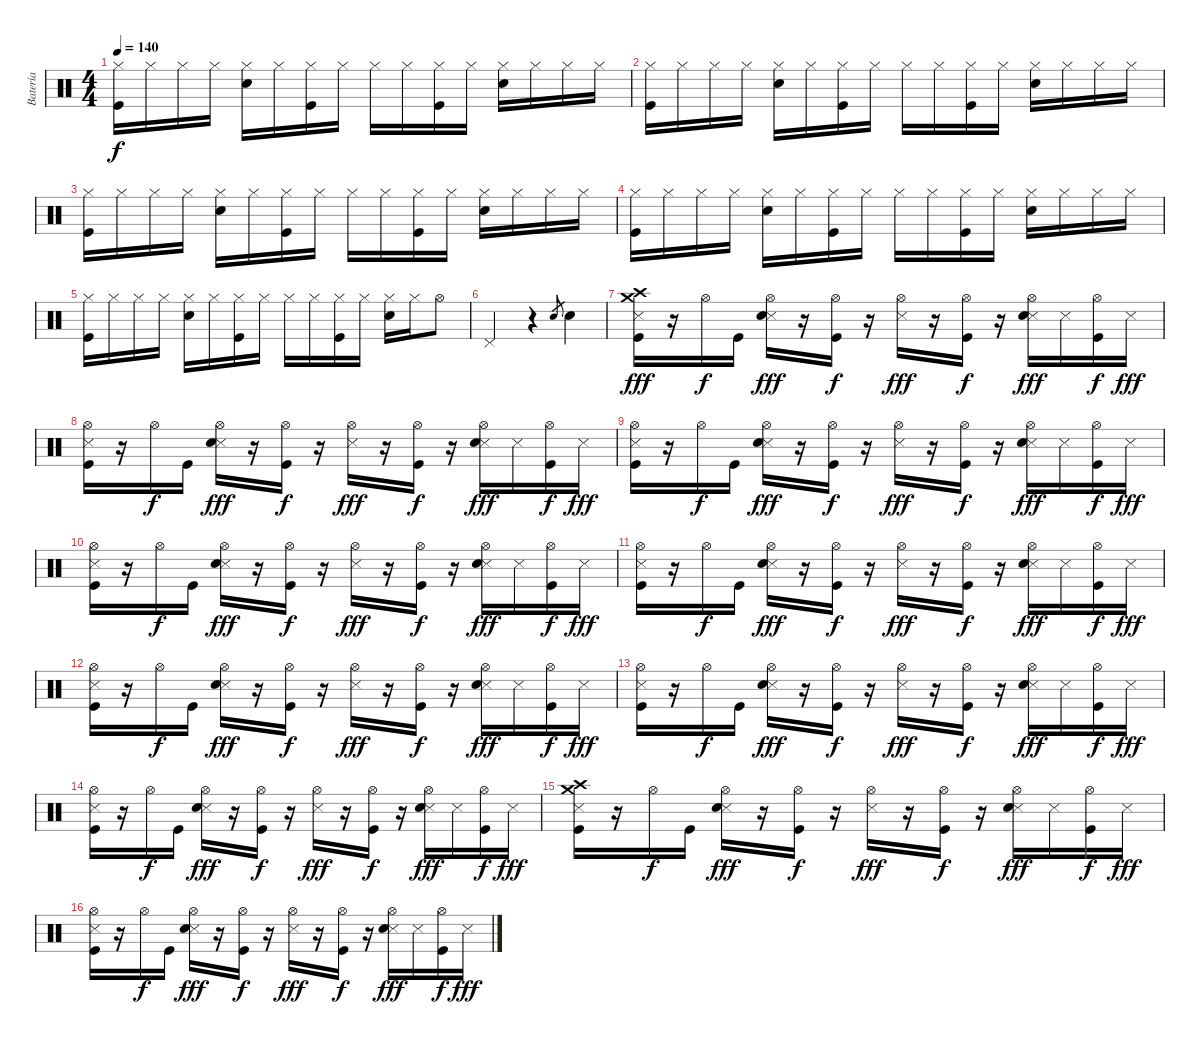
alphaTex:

\track ("Batería" "Batería") {instrument percussion}
\staff {score}
\articulation defaults
\ts (4 4)
\tempo 140
\clef neutral
\ks c
("Hi-Hat (closed)" "Kick (hit)").16{dy f} "Hi-Hat (closed)".16 "Hi-Hat (closed)".16 "Hi-Hat (closed)".16 ("Hi-Hat (closed)" "Snare (hit) 2").16 "Hi-Hat (closed)".16 ("Hi-Hat (closed)" "Kick (hit)").16 "Hi-Hat (closed)".16 "Hi-Hat (closed)".16 "Hi-Hat (closed)".16 ("Hi-Hat (closed)" "Kick (hit)").16 "Hi-Hat (closed)".16 ("Hi-Hat (closed)" "Snare (hit) 2").16 "Hi-Hat (closed)".16 "Hi-Hat (closed)".16 "Hi-Hat (closed)".16 |
("Hi-Hat (closed)" "Kick (hit)").16 "Hi-Hat (closed)".16 "Hi-Hat (closed)".16 "Hi-Hat (closed)".16 ("Hi-Hat (closed)" "Snare (hit) 2").16 "Hi-Hat (closed)".16 ("Hi-Hat (closed)" "Kick (hit)").16 "Hi-Hat (closed)".16 "Hi-Hat (closed)".16 "Hi-Hat (closed)".16 ("Hi-Hat (closed)" "Kick (hit)").16 "Hi-Hat (closed)".16 ("Hi-Hat (closed)" "Snare (hit) 2").16 "Hi-Hat (closed)".16 "Hi-Hat (closed)".16 "Hi-Hat (closed)".16 |
("Hi-Hat (closed)" "Kick (hit)").16 "Hi-Hat (closed)".16 "Hi-Hat (closed)".16 "Hi-Hat (closed)".16 ("Hi-Hat (closed)" "Snare (hit) 2").16 "Hi-Hat (closed)".16 ("Hi-Hat (closed)" "Kick (hit)").16 "Hi-Hat (closed)".16 "Hi-Hat (closed)".16 "Hi-Hat (closed)".16 ("Hi-Hat (closed)" "Kick (hit)").16 "Hi-Hat (closed)".16 ("Hi-Hat (closed)" "Snare (hit) 2").16 "Hi-Hat (closed)".16 "Hi-Hat (closed)".16 "Hi-Hat (closed)".16 |
("Hi-Hat (closed)" "Kick (hit)").16 "Hi-Hat (closed)".16 "Hi-Hat (closed)".16 "Hi-Hat (closed)".16 ("Hi-Hat (closed)" "Snare (hit) 2").16 "Hi-Hat (closed)".16 ("Hi-Hat (closed)" "Kick (hit)").16 "Hi-Hat (closed)".16 "Hi-Hat (closed)".16 "Hi-Hat (closed)".16 ("Hi-Hat (closed)" "Kick (hit)").16 "Hi-Hat (closed)".16 ("Hi-Hat (closed)" "Snare (hit) 2").16 "Hi-Hat (closed)".16 "Hi-Hat (closed)".16 "Hi-Hat (closed)".16 |
("Hi-Hat (closed)" "Kick (hit)").16 "Hi-Hat (closed)".16 "Hi-Hat (closed)".16 "Hi-Hat (closed)".16 ("Hi-Hat (closed)" "Snare (hit) 2").16 "Hi-Hat (closed)".16 ("Hi-Hat (closed)" "Kick (hit)").16 "Hi-Hat (closed)".16 "Hi-Hat (closed)".16 "Hi-Hat (closed)".16 ("Hi-Hat (closed)" "Kick (hit)").16 "Hi-Hat (closed)".16 ("Hi-Hat (closed)" "Snare (hit) 2").16 "Hi-Hat (closed)".16 "Hi-Hat (open)".8 |
"Pedal Hi-Hat (hit)".2 r.4 "Snare (hit) 2".8{gr} "Snare (hit) 2".4 |
("Metronome (hit)" "Crash medium (hit)" "Crash high (hit)" "Kick (hit)").16{dy fff} r.16 "Hi-Hat (open)".16{dy f} "Kick (hit)".16 ("Metronome (hit)" "Hi-Hat (open)" "Snare (hit) 2").16{dy fff} r.16 ("Hi-Hat (open)" "Kick (hit)").16{dy f} r.16 ("Metronome (hit)" "Hi-Hat (open)").16{dy fff} r.16 ("Hi-Hat (open)" "Kick (hit)").16{dy f} r.16 ("Metronome (hit)" "Hi-Hat (open)" "Snare (hit) 2").16{dy fff} "Metronome (hit)".16 ("Hi-Hat (open)" "Kick (hit)").16{dy f} "Metronome (hit)".16{dy fff} |
("Metronome (hit)" "Hi-Hat (open)" "Kick (hit)").16 r.16 "Hi-Hat (open)".16{dy f} "Kick (hit)".16 ("Metronome (hit)" "Hi-Hat (open)" "Snare (hit) 2").16{dy fff} r.16 ("Hi-Hat (open)" "Kick (hit)").16{dy f} r.16 ("Metronome (hit)" "Hi-Hat (open)").16{dy fff} r.16 ("Hi-Hat (open)" "Kick (hit)").16{dy f} r.16 ("Metronome (hit)" "Hi-Hat (open)" "Snare (hit) 2").16{dy fff} "Metronome (hit)".16 ("Hi-Hat (open)" "Kick (hit)").16{dy f} "Metronome (hit)".16{dy fff} |
("Metronome (hit)" "Hi-Hat (open)" "Kick (hit)").16 r.16 "Hi-Hat (open)".16{dy f} "Kick (hit)".16 ("Metronome (hit)" "Hi-Hat (open)" "Snare (hit) 2").16{dy fff} r.16 ("Hi-Hat (open)" "Kick (hit)").16{dy f} r.16 ("Metronome (hit)" "Hi-Hat (open)").16{dy fff} r.16 ("Hi-Hat (open)" "Kick (hit)").16{dy f} r.16 ("Metronome (hit)" "Hi-Hat (open)" "Snare (hit) 2").16{dy fff} "Metronome (hit)".16 ("Hi-Hat (open)" "Kick (hit)").16{dy f} "Metronome (hit)".16{dy fff} |
("Metronome (hit)" "Hi-Hat (open)" "Kick (hit)").16 r.16 "Hi-Hat (open)".16{dy f} "Kick (hit)".16 ("Metronome (hit)" "Hi-Hat (open)" "Snare (hit) 2").16{dy fff} r.16 ("Hi-Hat (open)" "Kick (hit)").16{dy f} r.16 ("Metronome (hit)" "Hi-Hat (open)").16{dy fff} r.16 ("Hi-Hat (open)" "Kick (hit)").16{dy f} r.16 ("Metronome (hit)" "Hi-Hat (open)" "Snare (hit) 2").16{dy fff} "Metronome (hit)".16 ("Hi-Hat (open)" "Kick (hit)").16{dy f} "Metronome (hit)".16{dy fff} |
("Metronome (hit)" "Hi-Hat (open)" "Kick (hit)").16 r.16 "Hi-Hat (open)".16{dy f} "Kick (hit)".16 ("Metronome (hit)" "Hi-Hat (open)" "Snare (hit) 2").16{dy fff} r.16 ("Hi-Hat (open)" "Kick (hit)").16{dy f} r.16 ("Metronome (hit)" "Hi-Hat (open)").16{dy fff} r.16 ("Hi-Hat (open)" "Kick (hit)").16{dy f} r.16 ("Metronome (hit)" "Hi-Hat (open)" "Snare (hit) 2").16{dy fff} "Metronome (hit)".16 ("Hi-Hat (open)" "Kick (hit)").16{dy f} "Metronome (hit)".16{dy fff} |
("Metronome (hit)" "Hi-Hat (open)" "Kick (hit)").16 r.16 "Hi-Hat (open)".16{dy f} "Kick (hit)".16 ("Metronome (hit)" "Hi-Hat (open)" "Snare (hit) 2").16{dy fff} r.16 ("Hi-Hat (open)" "Kick (hit)").16{dy f} r.16 ("Metronome (hit)" "Hi-Hat (open)").16{dy fff} r.16 ("Hi-Hat (open)" "Kick (hit)").16{dy f} r.16 ("Metronome (hit)" "Hi-Hat (open)" "Snare (hit) 2").16{dy fff} "Metronome (hit)".16 ("Hi-Hat (open)" "Kick (hit)").16{dy f} "Metronome (hit)".16{dy fff} |
("Metronome (hit)" "Hi-Hat (open)" "Kick (hit)").16 r.16 "Hi-Hat (open)".16{dy f} "Kick (hit)".16 ("Metronome (hit)" "Hi-Hat (open)" "Snare (hit) 2").16{dy fff} r.16 ("Hi-Hat (open)" "Kick (hit)").16{dy f} r.16 ("Metronome (hit)" "Hi-Hat (open)").16{dy fff} r.16 ("Hi-Hat (open)" "Kick (hit)").16{dy f} r.16 ("Metronome (hit)" "Hi-Hat (open)" "Snare (hit) 2").16{dy fff} "Metronome (hit)".16 ("Hi-Hat (open)" "Kick (hit)").16{dy f} "Metronome (hit)".16{dy fff} |
("Metronome (hit)" "Hi-Hat (open)" "Kick (hit)").16 r.16 "Hi-Hat (open)".16{dy f} "Kick (hit)".16 ("Metronome (hit)" "Hi-Hat (open)" "Snare (hit) 2").16{dy fff} r.16 ("Hi-Hat (open)" "Kick (hit)").16{dy f} r.16 ("Metronome (hit)" "Hi-Hat (open)").16{dy fff} r.16 ("Hi-Hat (open)" "Kick (hit)").16{dy f} r.16 ("Metronome (hit)" "Hi-Hat (open)" "Snare (hit) 2").16{dy fff} "Metronome (hit)".16 ("Hi-Hat (open)" "Kick (hit)").16{dy f} "Metronome (hit)".16{dy fff} |
("Metronome (hit)" "Crash medium (hit)" "Crash high (hit)" "Kick (hit)").16 r.16 "Hi-Hat (open)".16{dy f} "Kick (hit)".16 ("Metronome (hit)" "Hi-Hat (open)" "Snare (hit) 2").16{dy fff} r.16 ("Hi-Hat (open)" "Kick (hit)").16{dy f} r.16 ("Metronome (hit)" "Hi-Hat (open)").16{dy fff} r.16 ("Hi-Hat (open)" "Kick (hit)").16{dy f} r.16 ("Metronome (hit)" "Hi-Hat (open)" "Snare (hit) 2").16{dy fff} "Metronome (hit)".16 ("Hi-Hat (open)" "Kick (hit)").16{dy f} "Metronome (hit)".16{dy fff} |
("Metronome (hit)" "Hi-Hat (open)" "Kick (hit)").16 r.16 "Hi-Hat (open)".16{dy f} "Kick (hit)".16 ("Metronome (hit)" "Hi-Hat (open)" "Snare (hit) 2").16{dy fff} r.16 ("Hi-Hat (open)" "Kick (hit)").16{dy f} r.16 ("Metronome (hit)" "Hi-Hat (open)").16{dy fff} r.16 ("Hi-Hat (open)" "Kick (hit)").16{dy f} r.16 ("Metronome (hit)" "Hi-Hat (open)" "Snare (hit) 2").16{dy fff} "Metronome (hit)".16 ("Hi-Hat (open)" "Kick (hit)").16{dy f} "Metronome (hit)".16{dy fff}
